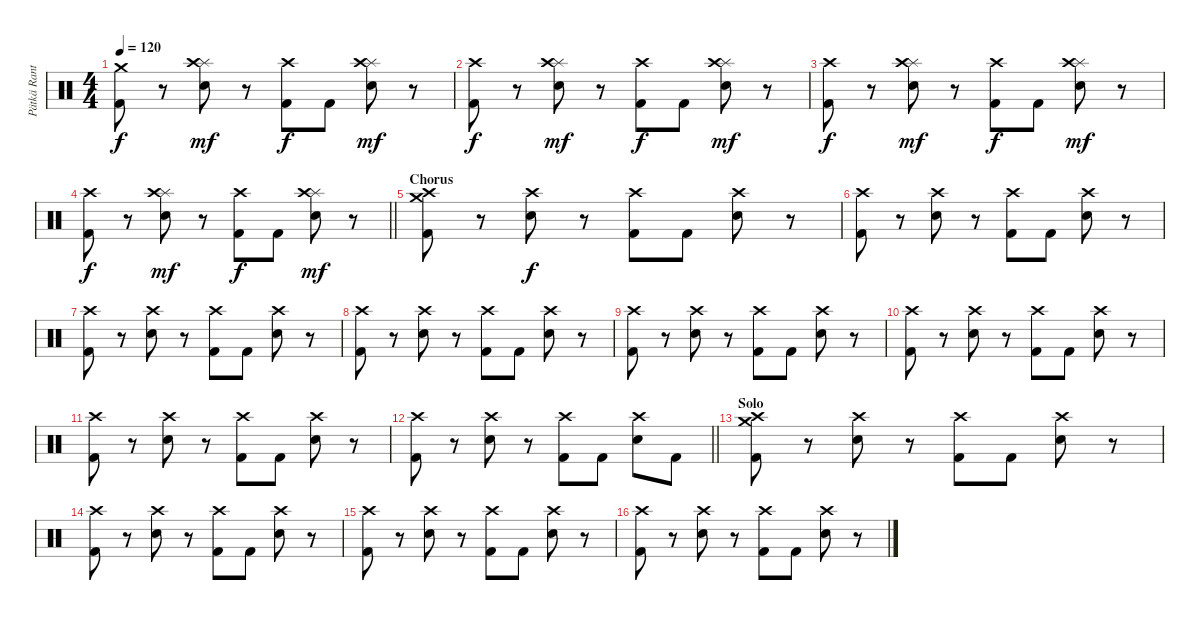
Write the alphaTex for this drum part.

\track ("Pätkä Rantala (Drums)" "Pätkä Rant") {instrument percussion}
\staff {score}
\articulation defaults
\ts (4 4)
\tempo 120
\clef neutral
\ks c
("Crash medium (hit)" "Kick (hit) 2").8{dy f} r.8 ("Splash (hit)" "Crash high (hit)" "Snare (hit) 2").8{dy mf} r.8 ("Crash high (hit)" "Kick (hit) 2").8{dy f} "Kick (hit) 2".8 ("Splash (hit)" "Crash high (hit)" "Snare (hit) 2").8{dy mf} r.8 |
("Crash high (hit)" "Kick (hit) 2").8{dy f} r.8 ("Splash (hit)" "Crash high (hit)" "Snare (hit) 2").8{dy mf} r.8 ("Crash high (hit)" "Kick (hit) 2").8{dy f} "Kick (hit) 2".8 ("Splash (hit)" "Crash high (hit)" "Snare (hit) 2").8{dy mf} r.8 |
("Crash high (hit)" "Kick (hit) 2").8{dy f} r.8 ("Splash (hit)" "Crash high (hit)" "Snare (hit) 2").8{dy mf} r.8 ("Crash high (hit)" "Kick (hit) 2").8{dy f} "Kick (hit) 2".8 ("Splash (hit)" "Crash high (hit)" "Snare (hit) 2").8{dy mf} r.8 |
\barLineRight lightlight
("Crash high (hit)" "Kick (hit) 2").8{dy f} r.8 ("Splash (hit)" "Crash high (hit)" "Snare (hit) 2").8{dy mf} r.8 ("Crash high (hit)" "Kick (hit) 2").8{dy f} "Kick (hit) 2".8 ("Splash (hit)" "Crash high (hit)" "Snare (hit) 2").8{dy mf} r.8 |
\section ("" "Chorus")
("Crash medium (hit)" "Crash high (hit)" "Kick (hit) 2").8 r.8 ("Crash high (hit)" "Snare (hit) 2").8{dy f} r.8 ("Crash high (hit)" "Kick (hit) 2").8 "Kick (hit) 2".8 ("Crash high (hit)" "Snare (hit) 2").8 r.8 |
("Crash high (hit)" "Kick (hit) 2").8 r.8 ("Crash high (hit)" "Snare (hit) 2").8 r.8 ("Crash high (hit)" "Kick (hit) 2").8 "Kick (hit) 2".8 ("Crash high (hit)" "Snare (hit) 2").8 r.8 |
("Crash high (hit)" "Kick (hit) 2").8 r.8 ("Crash high (hit)" "Snare (hit) 2").8 r.8 ("Crash high (hit)" "Kick (hit) 2").8 "Kick (hit) 2".8 ("Crash high (hit)" "Snare (hit) 2").8 r.8 |
("Crash high (hit)" "Kick (hit) 2").8 r.8 ("Crash high (hit)" "Snare (hit) 2").8 r.8 ("Crash high (hit)" "Kick (hit) 2").8 "Kick (hit) 2".8 ("Crash high (hit)" "Snare (hit) 2").8 r.8 |
("Crash high (hit)" "Kick (hit) 2").8 r.8 ("Crash high (hit)" "Snare (hit) 2").8 r.8 ("Crash high (hit)" "Kick (hit) 2").8 "Kick (hit) 2".8 ("Crash high (hit)" "Snare (hit) 2").8 r.8 |
("Crash high (hit)" "Kick (hit) 2").8 r.8 ("Crash high (hit)" "Snare (hit) 2").8 r.8 ("Crash high (hit)" "Kick (hit) 2").8 "Kick (hit) 2".8 ("Crash high (hit)" "Snare (hit) 2").8 r.8 |
("Crash high (hit)" "Kick (hit) 2").8 r.8 ("Crash high (hit)" "Snare (hit) 2").8 r.8 ("Crash high (hit)" "Kick (hit) 2").8 "Kick (hit) 2".8 ("Crash high (hit)" "Snare (hit) 2").8 r.8 |
\barLineRight lightlight
("Crash high (hit)" "Kick (hit) 2").8 r.8 ("Crash high (hit)" "Snare (hit) 2").8 r.8 ("Crash high (hit)" "Kick (hit) 2").8 "Kick (hit) 2".8 ("Crash high (hit)" "Snare (hit) 2").8 "Kick (hit) 2".8 |
\section ("" "Solo")
("Crash medium (hit)" "Crash high (hit)" "Kick (hit) 2").8 r.8 ("Crash high (hit)" "Snare (hit) 2").8 r.8 ("Crash high (hit)" "Kick (hit) 2").8 "Kick (hit) 2".8 ("Crash high (hit)" "Snare (hit) 2").8 r.8 |
("Crash high (hit)" "Kick (hit) 2").8 r.8 ("Crash high (hit)" "Snare (hit) 2").8 r.8 ("Crash high (hit)" "Kick (hit) 2").8 "Kick (hit) 2".8 ("Crash high (hit)" "Snare (hit) 2").8 r.8 |
("Crash high (hit)" "Kick (hit) 2").8 r.8 ("Crash high (hit)" "Snare (hit) 2").8 r.8 ("Crash high (hit)" "Kick (hit) 2").8 "Kick (hit) 2".8 ("Crash high (hit)" "Snare (hit) 2").8 r.8 |
("Crash high (hit)" "Kick (hit) 2").8 r.8 ("Crash high (hit)" "Snare (hit) 2").8 r.8 ("Crash high (hit)" "Kick (hit) 2").8 "Kick (hit) 2".8 ("Crash high (hit)" "Snare (hit) 2").8 r.8
